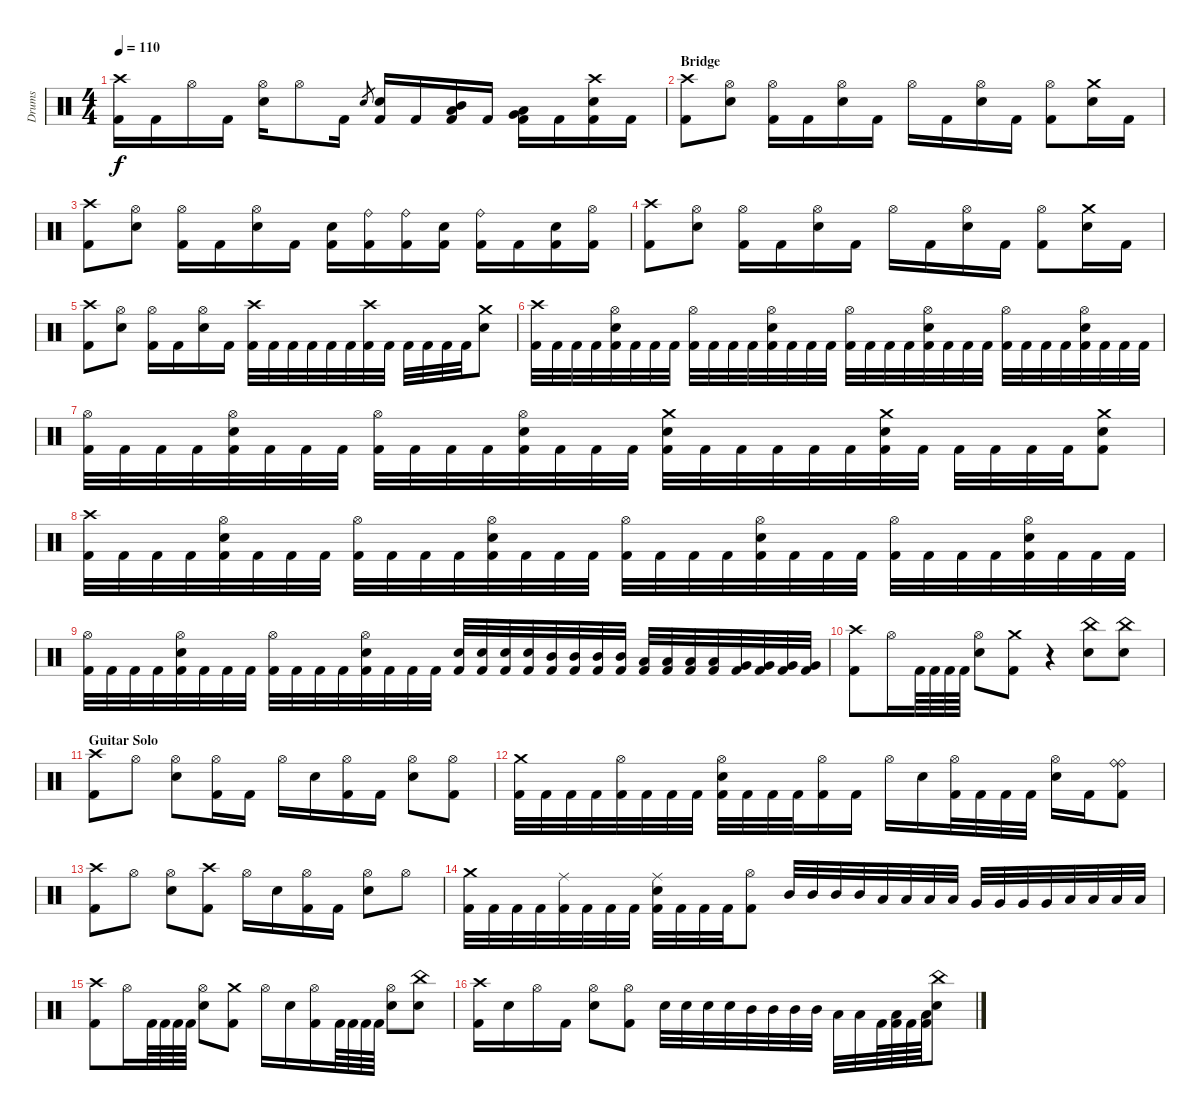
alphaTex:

\track ("Drums" "Drums") {instrument percussion}
\staff {score}
\articulation defaults
\ts (4 4)
\tempo 110
\clef neutral
\ks c
("Crash high (hit)" "Kick (hit) 2").16{dy f} "Kick (hit) 2".16 "Hi-Hat (open)".16 "Kick (hit) 2".16 ("Hi-Hat (open)" "Electric Snare (hit)").16 "Hi-Hat (open)".8 "Kick (hit) 2".16 "Electric Snare (hit)".8{gr} ("Electric Snare (hit)" "Kick (hit) 2").16 "Kick (hit) 2".16 ("Mid Tom (hit)" "Low Floor Tom (hit)" "Kick (hit) 2").16 "Kick (hit) 2".16 ("Very Low Tom (hit)" "Low Floor Tom (hit)" "Kick (hit) 2").16 "Kick (hit) 2".16 ("Crash high (hit)" "Electric Snare (hit)" "Kick (hit) 2").16 "Kick (hit) 2".16 |
\section ("" "Bridge ")
("Crash high (hit)" "Kick (hit) 2").8 ("Hi-Hat (open)" "Electric Snare (hit)").8 ("Hi-Hat (open)" "Kick (hit) 2").16 "Kick (hit) 2".16 ("Hi-Hat (open)" "Electric Snare (hit)").16 "Kick (hit) 2".16 "Hi-Hat (open)".16 "Kick (hit) 2".16 ("Hi-Hat (open)" "Electric Snare (hit)").16 "Kick (hit) 2".16 ("Hi-Hat (open)" "Kick (hit) 2").8 ("Crash medium (hit)" "Electric Snare (hit)").16 "Kick (hit) 2".16 |
("Crash high (hit)" "Kick (hit) 2").8 ("Hi-Hat (open)" "Electric Snare (hit)").8 ("Hi-Hat (open)" "Kick (hit) 2").16 "Kick (hit) 2".16 ("Hi-Hat (open)" "Electric Snare (hit)").16 "Kick (hit) 2".16 ("Electric Snare (hit)" "Kick (hit) 2").16 ("Ride (bell)" "Kick (hit) 2").16 ("Ride (bell)" "Kick (hit) 2").16 ("Electric Snare (hit)" "Kick (hit) 2").16 ("Ride (bell)" "Kick (hit) 2").16 "Kick (hit) 2".16 ("Electric Snare (hit)" "Kick (hit) 2").16 ("Hi-Hat (open)" "Kick (hit) 2").16 |
("Crash high (hit)" "Kick (hit) 2").8 ("Hi-Hat (open)" "Electric Snare (hit)").8 ("Hi-Hat (open)" "Kick (hit) 2").16 "Kick (hit) 2".16 ("Hi-Hat (open)" "Electric Snare (hit)").16 "Kick (hit) 2".16 "Hi-Hat (open)".16 "Kick (hit) 2".16 ("Hi-Hat (open)" "Electric Snare (hit)").16 "Kick (hit) 2".16 ("Hi-Hat (open)" "Kick (hit) 2").8 ("Crash medium (hit)" "Electric Snare (hit)").16 "Kick (hit) 2".16 |
("Crash high (hit)" "Kick (hit) 2").8 ("Hi-Hat (open)" "Electric Snare (hit)").8 ("Hi-Hat (open)" "Kick (hit) 2").16 "Kick (hit) 2".16 ("Hi-Hat (open)" "Electric Snare (hit)").16 "Kick (hit) 2".16 ("Crash high (hit)" "Kick (hit) 2").32 "Kick (hit) 2".32 "Kick (hit) 2".32 "Kick (hit) 2".32 "Kick (hit) 2".32 "Kick (hit) 2".32 ("Crash high (hit)" "Kick (hit) 2").32 "Kick (hit) 2".32 "Kick (hit) 2".32 "Kick (hit) 2".32 "Kick (hit) 2".32 "Kick (hit) 2".32 ("Crash medium (hit)" "Electric Snare (hit)").8 |
("Crash high (hit)" "Kick (hit) 2").32 "Kick (hit) 2".32 "Kick (hit) 2".32 "Kick (hit) 2".32 ("Hi-Hat (open)" "Electric Snare (hit)" "Kick (hit) 2").32 "Kick (hit) 2".32 "Kick (hit) 2".32 "Kick (hit) 2".32 ("Hi-Hat (open)" "Kick (hit) 2").32 "Kick (hit) 2".32 "Kick (hit) 2".32 "Kick (hit) 2".32 ("Hi-Hat (open)" "Electric Snare (hit)" "Kick (hit) 2").32 "Kick (hit) 2".32 "Kick (hit) 2".32 "Kick (hit) 2".32 ("Hi-Hat (open)" "Kick (hit) 2").32 "Kick (hit) 2".32 "Kick (hit) 2".32 "Kick (hit) 2".32 ("Hi-Hat (open)" "Electric Snare (hit)" "Kick (hit) 2").32 "Kick (hit) 2".32 "Kick (hit) 2".32 "Kick (hit) 2".32 ("Hi-Hat (open)" "Kick (hit) 2").32 "Kick (hit) 2".32 "Kick (hit) 2".32 "Kick (hit) 2".32 ("Hi-Hat (open)" "Electric Snare (hit)" "Kick (hit) 2").32 "Kick (hit) 2".32 "Kick (hit) 2".32 "Kick (hit) 2".32 |
("Hi-Hat (open)" "Kick (hit) 2").32 "Kick (hit) 2".32 "Kick (hit) 2".32 "Kick (hit) 2".32 ("Hi-Hat (open)" "Electric Snare (hit)" "Kick (hit) 2").32 "Kick (hit) 2".32 "Kick (hit) 2".32 "Kick (hit) 2".32 ("Hi-Hat (open)" "Kick (hit) 2").32 "Kick (hit) 2".32 "Kick (hit) 2".32 "Kick (hit) 2".32 ("Hi-Hat (open)" "Electric Snare (hit)" "Kick (hit) 2").32 "Kick (hit) 2".32 "Kick (hit) 2".32 "Kick (hit) 2".32 ("Crash medium (hit)" "Electric Snare (hit)" "Kick (hit) 2").32 "Kick (hit) 2".32 "Kick (hit) 2".32 "Kick (hit) 2".32 "Kick (hit) 2".32 "Kick (hit) 2".32 ("Crash medium (hit)" "Electric Snare (hit)" "Kick (hit) 2").32 "Kick (hit) 2".32 "Kick (hit) 2".32 "Kick (hit) 2".32 "Kick (hit) 2".32 "Kick (hit) 2".32 ("Crash medium (hit)" "Electric Snare (hit)" "Kick (hit) 2").8 |
("Crash high (hit)" "Kick (hit) 2").32 "Kick (hit) 2".32 "Kick (hit) 2".32 "Kick (hit) 2".32 ("Hi-Hat (open)" "Electric Snare (hit)" "Kick (hit) 2").32 "Kick (hit) 2".32 "Kick (hit) 2".32 "Kick (hit) 2".32 ("Hi-Hat (open)" "Kick (hit) 2").32 "Kick (hit) 2".32 "Kick (hit) 2".32 "Kick (hit) 2".32 ("Hi-Hat (open)" "Electric Snare (hit)" "Kick (hit) 2").32 "Kick (hit) 2".32 "Kick (hit) 2".32 "Kick (hit) 2".32 ("Hi-Hat (open)" "Kick (hit) 2").32 "Kick (hit) 2".32 "Kick (hit) 2".32 "Kick (hit) 2".32 ("Hi-Hat (open)" "Electric Snare (hit)" "Kick (hit) 2").32 "Kick (hit) 2".32 "Kick (hit) 2".32 "Kick (hit) 2".32 ("Hi-Hat (open)" "Kick (hit) 2").32 "Kick (hit) 2".32 "Kick (hit) 2".32 "Kick (hit) 2".32 ("Hi-Hat (open)" "Electric Snare (hit)" "Kick (hit) 2").32 "Kick (hit) 2".32 "Kick (hit) 2".32 "Kick (hit) 2".32 |
("Hi-Hat (open)" "Kick (hit) 2").32 "Kick (hit) 2".32 "Kick (hit) 2".32 "Kick (hit) 2".32 ("Hi-Hat (open)" "Electric Snare (hit)" "Kick (hit) 2").32 "Kick (hit) 2".32 "Kick (hit) 2".32 "Kick (hit) 2".32 ("Hi-Hat (open)" "Kick (hit) 2").32 "Kick (hit) 2".32 "Kick (hit) 2".32 "Kick (hit) 2".32 ("Hi-Hat (open)" "Electric Snare (hit)" "Kick (hit) 2").32 "Kick (hit) 2".32 "Kick (hit) 2".32 "Kick (hit) 2".32 ("Electric Snare (hit)" "Kick (hit) 2").32 ("Electric Snare (hit)" "Kick (hit) 2").32 ("Electric Snare (hit)" "Kick (hit) 2").32 ("Electric Snare (hit)" "Kick (hit) 2").32 ("Mid Tom (hit)" "Kick (hit) 2").32 ("Mid Tom (hit)" "Kick (hit) 2").32 ("Mid Tom (hit)" "Kick (hit) 2").32 ("Mid Tom (hit)" "Kick (hit) 2").32 ("Low Tom (hit)" "Kick (hit) 2").32 ("Low Tom (hit)" "Kick (hit) 2").32 ("Low Tom (hit)" "Kick (hit) 2").32 ("Low Tom (hit)" "Kick (hit) 2").32 ("Very Low Tom (hit)" "Kick (hit) 2").32 ("Very Low Tom (hit)" "Kick (hit) 2").32 ("Very Low Tom (hit)" "Kick (hit) 2").32 ("Very Low Tom (hit)" "Kick (hit) 2").32 |
("Crash high (hit)" "Kick (hit) 2").8 "Hi-Hat (open)".16 "Kick (hit) 2".64 "Kick (hit) 2".64 "Kick (hit) 2".64 "Kick (hit) 2".64 ("Hi-Hat (open)" "Electric Snare (hit)").8 ("Crash medium (hit)" "Kick (hit) 2").8 r.4 ("China (hit)" "Electric Snare (hit)").8 ("China (hit)" "Electric Snare (hit)").8 |
\section ("" "Guitar Solo")
("Crash high (hit)" "Kick (hit) 2").8 "Hi-Hat (open)".8 ("Hi-Hat (open)" "Electric Snare (hit)").8 ("Hi-Hat (open)" "Kick (hit) 2").16 "Kick (hit) 2".16 "Hi-Hat (open)".16 "Electric Snare (hit)".16 ("Hi-Hat (open)" "Kick (hit) 2").16 "Kick (hit) 2".16 ("Hi-Hat (open)" "Electric Snare (hit)").8 ("Hi-Hat (open)" "Kick (hit) 2").8 |
("Crash medium (hit)" "Kick (hit) 2").32 "Kick (hit) 2".32 "Kick (hit) 2".32 "Kick (hit) 2".32 ("Hi-Hat (open)" "Kick (hit) 2").32 "Kick (hit) 2".32 "Kick (hit) 2".32 "Kick (hit) 2".32 ("Hi-Hat (open)" "Electric Snare (hit)" "Kick (hit) 2").32 "Kick (hit) 2".32 "Kick (hit) 2".32 "Kick (hit) 2".32 ("Hi-Hat (open)" "Kick (hit) 2").16 "Kick (hit) 2".16 "Hi-Hat (open)".16 "Electric Snare (hit)".16 ("Hi-Hat (open)" "Kick (hit) 2").32 "Kick (hit) 2".32 "Kick (hit) 2".32 "Kick (hit) 2".32 ("Hi-Hat (open)" "Electric Snare (hit)").16 "Kick (hit) 2".16 ("Ride (bell)" "Ride (bell)" "Kick (hit) 2").8 |
("Crash high (hit)" "Kick (hit) 2").8 "Hi-Hat (open)".8 ("Hi-Hat (open)" "Electric Snare (hit)").8 ("Crash high (hit)" "Kick (hit) 2").8 "Hi-Hat (open)".16 "Electric Snare (hit)".16 ("Hi-Hat (open)" "Kick (hit) 2").16 "Kick (hit) 2".16 ("Hi-Hat (open)" "Electric Snare (hit)").8 "Hi-Hat (open)".8 |
("Crash medium (hit)" "Kick (hit) 2").32 "Kick (hit) 2".32 "Kick (hit) 2".32 "Kick (hit) 2".32 ("Ride (middle)" "Kick (hit) 2").32 "Kick (hit) 2".32 "Kick (hit) 2".32 "Kick (hit) 2".32 ("Ride (middle)" "Electric Snare (hit)" "Kick (hit) 2").32 "Kick (hit) 2".32 "Kick (hit) 2".32 "Kick (hit) 2".32 ("Hi-Hat (open)" "Kick (hit) 2").8 "Mid Tom (hit)".32 "Mid Tom (hit)".32 "Mid Tom (hit)".32 "Mid Tom (hit)".32 "Low Tom (hit)".32 "Low Tom (hit)".32 "Low Tom (hit)".32 "Low Tom (hit)".32 "Very Low Tom (hit)".32 "Very Low Tom (hit)".32 "Very Low Tom (hit)".32 "Very Low Tom (hit)".32 "Low Floor Tom (hit)".32 "Low Floor Tom (hit)".32 "Low Floor Tom (hit)".32 "Low Floor Tom (hit)".32 |
("Crash high (hit)" "Kick (hit) 2").8 "Hi-Hat (open)".16 "Kick (hit) 2".64 "Kick (hit) 2".64 "Kick (hit) 2".64 "Kick (hit) 2".64 ("Hi-Hat (open)" "Electric Snare (hit)").8 ("Crash medium (hit)" "Kick (hit) 2").8 "Hi-Hat (open)".16 "Electric Snare (hit)".16 ("Hi-Hat (open)" "Kick (hit) 2").16 "Kick (hit) 2".64 "Kick (hit) 2".64 "Kick (hit) 2".64 "Kick (hit) 2".64 ("Hi-Hat (open)" "Electric Snare (hit)").8 ("China (hit)" "Electric Snare (hit)").8 |
("Crash high (hit)" "Kick (hit) 2").16 "Electric Snare (hit)".16 "Hi-Hat (open)".16 "Kick (hit) 2".16 ("Hi-Hat (open)" "Electric Snare (hit)").8 ("Hi-Hat (open)" "Kick (hit) 2").8 "Electric Snare (hit)".32 "Electric Snare (hit)".32 "Electric Snare (hit)".32 "Electric Snare (hit)".32 "Mid Tom (hit)".32 "Mid Tom (hit)".32 "Mid Tom (hit)".32 "Mid Tom (hit)".32 "Low Tom (hit)".32 "Low Tom (hit)".32 "Kick (hit) 2".64 ("Low Tom (hit)" "Kick (hit) 2").64 "Kick (hit) 2".64 ("Low Tom (hit)" "Kick (hit) 2").64 ("China (hit)" "Electric Snare (hit)").8
